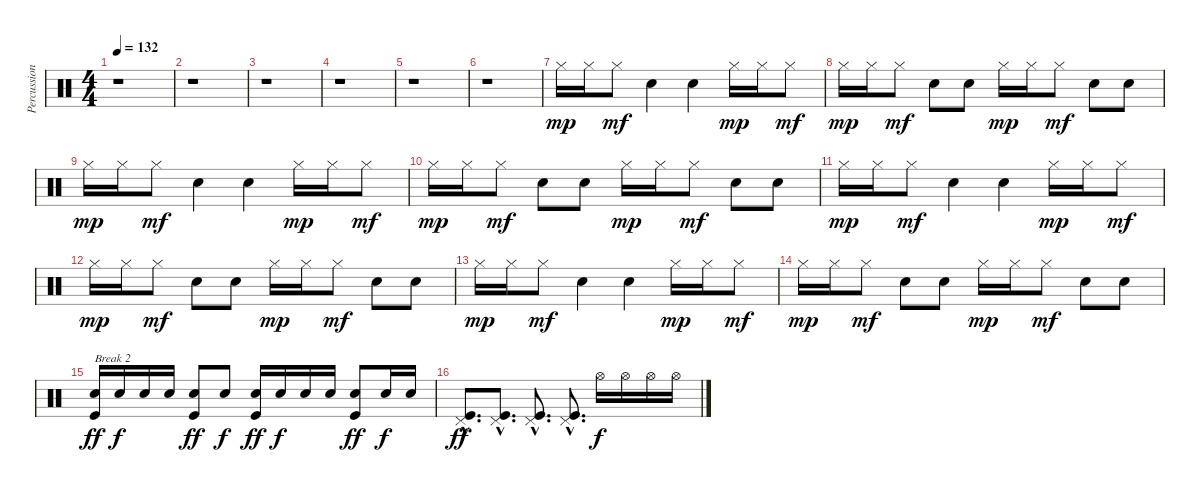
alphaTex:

\track ("Percussion" "Percussion") {instrument percussion}
\staff {score}
\articulation defaults
\ts (4 4)
\tempo 132
\clef neutral
\ks c
r.1{dy mf} |
r.1 |
r.1 |
r.1 |
r.1 |
r.1 |
"Hi-Hat (closed)".16{dy mp} "Hi-Hat (closed)".16 "Hi-Hat (closed)".8{dy mf} "Hand Clap (hit)".4 "Hand Clap (hit)".4 "Hi-Hat (closed)".16{dy mp} "Hi-Hat (closed)".16 "Hi-Hat (closed)".8{dy mf} |
"Hi-Hat (closed)".16{dy mp} "Hi-Hat (closed)".16 "Hi-Hat (closed)".8{dy mf} "Hand Clap (hit)".8 "Hand Clap (hit)".8 "Hi-Hat (closed)".16{dy mp} "Hi-Hat (closed)".16 "Hi-Hat (closed)".8{dy mf} "Hand Clap (hit)".8 "Hand Clap (hit)".8 |
"Hi-Hat (closed)".16{dy mp} "Hi-Hat (closed)".16 "Hi-Hat (closed)".8{dy mf} "Hand Clap (hit)".4 "Hand Clap (hit)".4 "Hi-Hat (closed)".16{dy mp} "Hi-Hat (closed)".16 "Hi-Hat (closed)".8{dy mf} |
"Hi-Hat (closed)".16{dy mp} "Hi-Hat (closed)".16 "Hi-Hat (closed)".8{dy mf} "Hand Clap (hit)".8 "Hand Clap (hit)".8 "Hi-Hat (closed)".16{dy mp} "Hi-Hat (closed)".16 "Hi-Hat (closed)".8{dy mf} "Hand Clap (hit)".8 "Hand Clap (hit)".8 |
"Hi-Hat (closed)".16{dy mp} "Hi-Hat (closed)".16 "Hi-Hat (closed)".8{dy mf} "Hand Clap (hit)".4 "Hand Clap (hit)".4 "Hi-Hat (closed)".16{dy mp} "Hi-Hat (closed)".16 "Hi-Hat (closed)".8{dy mf} |
"Hi-Hat (closed)".16{dy mp} "Hi-Hat (closed)".16 "Hi-Hat (closed)".8{dy mf} "Hand Clap (hit)".8 "Hand Clap (hit)".8 "Hi-Hat (closed)".16{dy mp} "Hi-Hat (closed)".16 "Hi-Hat (closed)".8{dy mf} "Hand Clap (hit)".8 "Hand Clap (hit)".8 |
"Hi-Hat (closed)".16{dy mp} "Hi-Hat (closed)".16 "Hi-Hat (closed)".8{dy mf} "Hand Clap (hit)".4 "Hand Clap (hit)".4 "Hi-Hat (closed)".16{dy mp} "Hi-Hat (closed)".16 "Hi-Hat (closed)".8{dy mf} |
"Hi-Hat (closed)".16{dy mp} "Hi-Hat (closed)".16 "Hi-Hat (closed)".8{dy mf} "Hand Clap (hit)".8 "Hand Clap (hit)".8 "Hi-Hat (closed)".16{dy mp} "Hi-Hat (closed)".16 "Hi-Hat (closed)".8{dy mf} "Hand Clap (hit)".8 "Hand Clap (hit)".8 |
("Electric Snare (hit)" "Kick (hit)").16{txt "Break 2" dy ff} "Electric Snare (hit)".16{dy f} "Electric Snare (hit)".16 "Electric Snare (hit)".16 ("Electric Snare (hit)" "Kick (hit)").8{dy ff} "Electric Snare (hit)".8{dy f} ("Electric Snare (hit)" "Kick (hit)").16{dy ff} "Electric Snare (hit)".16{dy f} "Electric Snare (hit)".16 "Electric Snare (hit)".16 ("Electric Snare (hit)" "Kick (hit)").8{dy ff} "Electric Snare (hit)".16{dy f} "Electric Snare (hit)".16 |
("Pedal Hi-Hat (hit)"{hac} "Kick (hit)"{hac}).8{d dy ff} ("Pedal Hi-Hat (hit)"{hac} "Kick (hit)"{hac}).8{d} ("Pedal Hi-Hat (hit)"{hac} "Kick (hit)"{hac}).8{d} ("Pedal Hi-Hat (hit)"{hac} "Kick (hit)"{hac}).8{d} "Hi-Hat (open)".16{dy f} "Hi-Hat (open)".16 "Hi-Hat (open)".16 "Hi-Hat (open)".16
